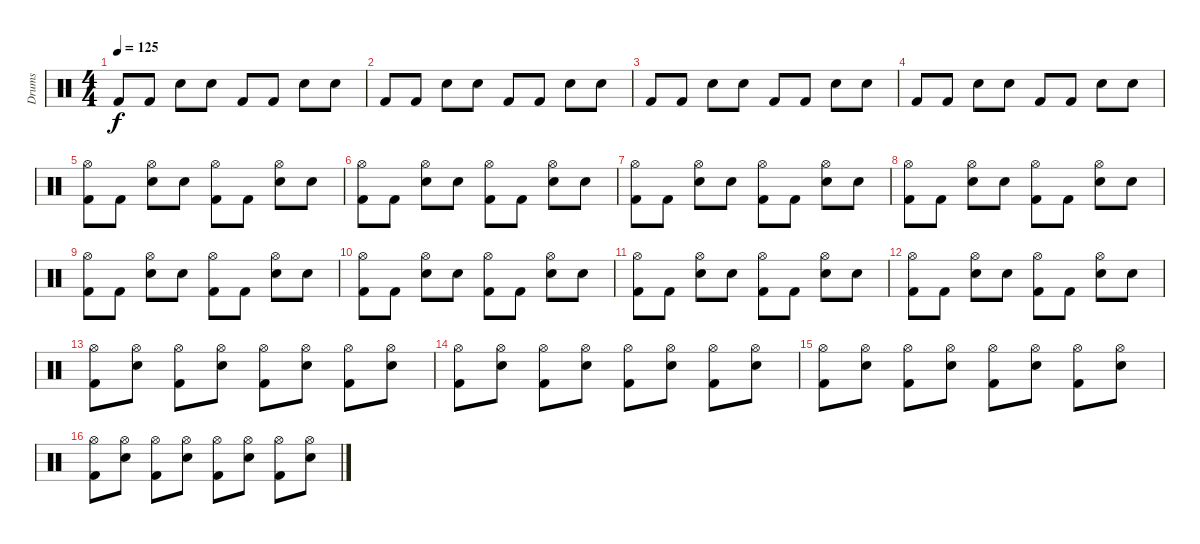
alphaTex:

\track ("Drums" "Drums") {instrument percussion}
\staff {score}
\articulation defaults
\ts (4 4)
\tempo 125
\clef neutral
\ks c "Kick (hit) 2".8{dy f} "Kick (hit) 2".8 "Snare (hit) 2".8 "Snare (hit)".8 "Kick (hit) 2".8 "Kick (hit) 2".8 "Snare (hit) 2".8 "Snare (hit)".8
|
"Kick (hit) 2".8 "Kick (hit) 2".8 "Snare (hit) 2".8 "Snare (hit)".8 "Kick (hit) 2".8 "Kick (hit) 2".8 "Snare (hit) 2".8 "Snare (hit)".8 |
"Kick (hit) 2".8 "Kick (hit) 2".8 "Snare (hit) 2".8 "Snare (hit)".8 "Kick (hit) 2".8 "Kick (hit) 2".8 "Snare (hit) 2".8 "Snare (hit)".8 |
"Kick (hit) 2".8 "Kick (hit) 2".8 "Snare (hit) 2".8 "Snare (hit)".8 "Kick (hit) 2".8 "Kick (hit) 2".8 "Snare (hit) 2".8 "Snare (hit)".8 |
("Hi-Hat (open)" "Kick (hit) 2").8 "Kick (hit) 2".8 ("Hi-Hat (open)" "Snare (hit) 2").8 "Snare (hit)".8 ("Hi-Hat (open)" "Kick (hit) 2").8 "Kick (hit) 2".8 ("Hi-Hat (open)" "Snare (hit) 2").8 "Snare (hit)".8 |
("Hi-Hat (open)" "Kick (hit) 2").8 "Kick (hit) 2".8 ("Hi-Hat (open)" "Snare (hit) 2").8 "Snare (hit)".8 ("Hi-Hat (open)" "Kick (hit) 2").8 "Kick (hit) 2".8 ("Hi-Hat (open)" "Snare (hit) 2").8 "Snare (hit)".8 |
("Hi-Hat (open)" "Kick (hit) 2").8 "Kick (hit) 2".8 ("Hi-Hat (open)" "Snare (hit) 2").8 "Snare (hit)".8 ("Hi-Hat (open)" "Kick (hit) 2").8 "Kick (hit) 2".8 ("Hi-Hat (open)" "Snare (hit) 2").8 "Snare (hit)".8 |
("Hi-Hat (open)" "Kick (hit) 2").8 "Kick (hit) 2".8 ("Hi-Hat (open)" "Snare (hit) 2").8 "Snare (hit)".8 ("Hi-Hat (open)" "Kick (hit) 2").8 "Kick (hit) 2".8 ("Hi-Hat (open)" "Snare (hit) 2").8 "Snare (hit)".8 |
("Hi-Hat (open)" "Kick (hit) 2").8 "Kick (hit) 2".8 ("Hi-Hat (open)" "Snare (hit) 2").8 "Snare (hit)".8 ("Hi-Hat (open)" "Kick (hit) 2").8 "Kick (hit) 2".8 ("Hi-Hat (open)" "Snare (hit) 2").8 "Snare (hit)".8 |
("Hi-Hat (open)" "Kick (hit) 2").8 "Kick (hit) 2".8 ("Hi-Hat (open)" "Snare (hit) 2").8 "Snare (hit)".8 ("Hi-Hat (open)" "Kick (hit) 2").8 "Kick (hit) 2".8 ("Hi-Hat (open)" "Snare (hit) 2").8 "Snare (hit)".8 |
("Hi-Hat (open)" "Kick (hit) 2").8 "Kick (hit) 2".8 ("Hi-Hat (open)" "Snare (hit) 2").8 "Snare (hit)".8 ("Hi-Hat (open)" "Kick (hit) 2").8 "Kick (hit) 2".8 ("Hi-Hat (open)" "Snare (hit) 2").8 "Snare (hit)".8 |
("Hi-Hat (open)" "Kick (hit) 2").8 "Kick (hit) 2".8 ("Hi-Hat (open)" "Snare (hit) 2").8 "Snare (hit)".8 ("Hi-Hat (open)" "Kick (hit) 2").8 "Kick (hit) 2".8 ("Hi-Hat (open)" "Snare (hit) 2").8 "Snare (hit)".8 |
("Hi-Hat (open)" "Kick (hit) 2").8 ("Hi-Hat (open)" "Snare (hit) 2").8 ("Hi-Hat (open)" "Kick (hit) 2").8 ("Hi-Hat (open)" "Snare (hit) 2").8 ("Hi-Hat (open)" "Kick (hit) 2").8 ("Hi-Hat (open)" "Snare (hit) 2").8 ("Hi-Hat (open)" "Kick (hit) 2").8 ("Hi-Hat (open)" "Snare (hit) 2").8 |
("Hi-Hat (open)" "Kick (hit) 2").8 ("Hi-Hat (open)" "Snare (hit) 2").8 ("Hi-Hat (open)" "Kick (hit) 2").8 ("Hi-Hat (open)" "Snare (hit) 2").8 ("Hi-Hat (open)" "Kick (hit) 2").8 ("Hi-Hat (open)" "Snare (hit) 2").8 ("Hi-Hat (open)" "Kick (hit) 2").8 ("Hi-Hat (open)" "Snare (hit) 2").8 |
("Hi-Hat (open)" "Kick (hit) 2").8 ("Hi-Hat (open)" "Snare (hit) 2").8 ("Hi-Hat (open)" "Kick (hit) 2").8 ("Hi-Hat (open)" "Snare (hit) 2").8 ("Hi-Hat (open)" "Kick (hit) 2").8 ("Hi-Hat (open)" "Snare (hit) 2").8 ("Hi-Hat (open)" "Kick (hit) 2").8 ("Hi-Hat (open)" "Snare (hit) 2").8 |
("Hi-Hat (open)" "Kick (hit) 2").8 ("Hi-Hat (open)" "Snare (hit) 2").8 ("Hi-Hat (open)" "Kick (hit) 2").8 ("Hi-Hat (open)" "Snare (hit) 2").8 ("Hi-Hat (open)" "Kick (hit) 2").8 ("Hi-Hat (open)" "Snare (hit) 2").8 ("Hi-Hat (open)" "Kick (hit) 2").8 ("Hi-Hat (open)" "Snare (hit) 2").8
